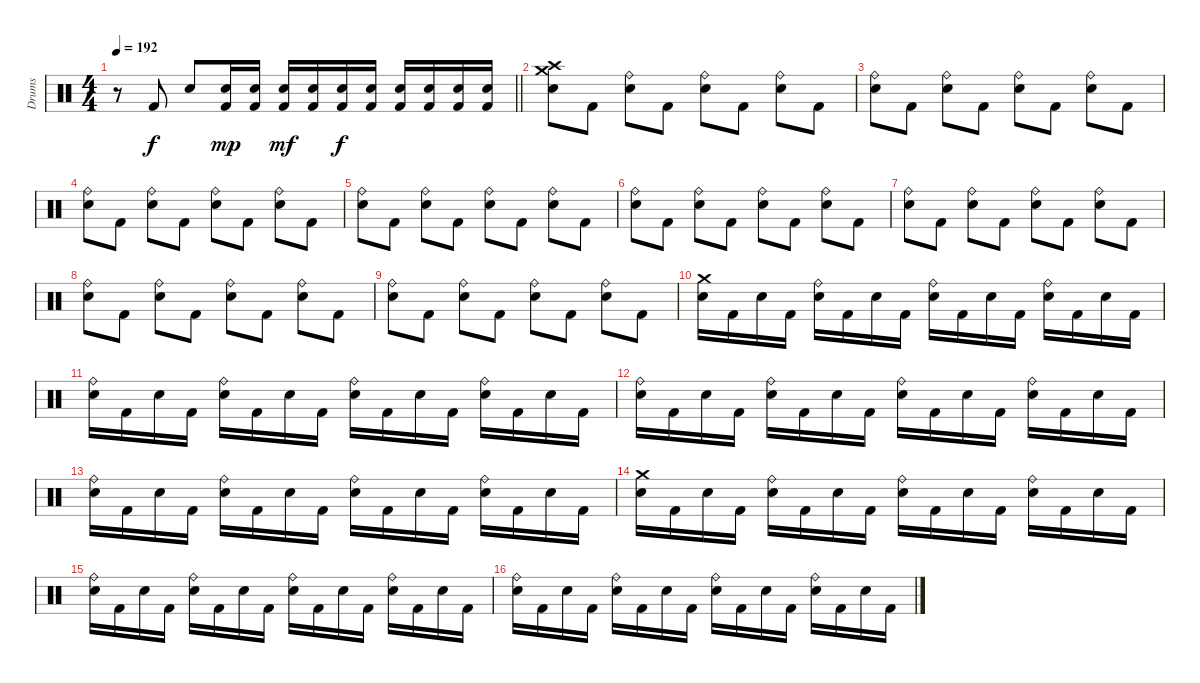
\track ("Drums" "Drums") {instrument percussion}
\staff {score}
\articulation defaults
\ts (4 4)
\tempo 192
\clef neutral
\barLineRight lightlight
\ks c
r.8{dy f} "Kick (hit) 2".8 "Snare (hit) 2".8 ("Snare (hit) 2" "Kick (hit) 2").16{dy mp} ("Snare (hit) 2" "Kick (hit) 2").16 ("Snare (hit) 2" "Kick (hit) 2").16{dy mf} ("Snare (hit) 2" "Kick (hit) 2").16 ("Snare (hit) 2" "Kick (hit) 2").16{dy f} ("Snare (hit) 2" "Kick (hit) 2").16 ("Snare (hit) 2" "Kick (hit) 2").16 ("Snare (hit) 2" "Kick (hit) 2").16 ("Snare (hit) 2" "Kick (hit) 2").16 ("Snare (hit) 2" "Kick (hit) 2").16 |
\section ("" "")
("Crash medium (hit)" "Crash high (hit)" "Snare (hit) 2").8 "Kick (hit) 2".8 ("Ride (bell)" "Snare (hit) 2").8 "Kick (hit) 2".8 ("Ride (bell)" "Snare (hit) 2").8 "Kick (hit) 2".8 ("Ride (bell)" "Snare (hit) 2").8 "Kick (hit) 2".8 |
("Ride (bell)" "Snare (hit) 2").8 "Kick (hit) 2".8 ("Ride (bell)" "Snare (hit) 2").8 "Kick (hit) 2".8 ("Ride (bell)" "Snare (hit) 2").8 "Kick (hit) 2".8 ("Ride (bell)" "Snare (hit) 2").8 "Kick (hit) 2".8 |
("Ride (bell)" "Snare (hit) 2").8 "Kick (hit) 2".8 ("Ride (bell)" "Snare (hit) 2").8 "Kick (hit) 2".8 ("Ride (bell)" "Snare (hit) 2").8 "Kick (hit) 2".8 ("Ride (bell)" "Snare (hit) 2").8 "Kick (hit) 2".8 |
("Ride (bell)" "Snare (hit) 2").8 "Kick (hit) 2".8 ("Ride (bell)" "Snare (hit) 2").8 "Kick (hit) 2".8 ("Ride (bell)" "Snare (hit) 2").8 "Kick (hit) 2".8 ("Ride (bell)" "Snare (hit) 2").8 "Kick (hit) 2".8 |
("Ride (bell)" "Snare (hit) 2").8 "Kick (hit) 2".8 ("Ride (bell)" "Snare (hit) 2").8 "Kick (hit) 2".8 ("Ride (bell)" "Snare (hit) 2").8 "Kick (hit) 2".8 ("Ride (bell)" "Snare (hit) 2").8 "Kick (hit) 2".8 |
("Ride (bell)" "Snare (hit) 2").8 "Kick (hit) 2".8 ("Ride (bell)" "Snare (hit) 2").8 "Kick (hit) 2".8 ("Ride (bell)" "Snare (hit) 2").8 "Kick (hit) 2".8 ("Ride (bell)" "Snare (hit) 2").8 "Kick (hit) 2".8 |
("Ride (bell)" "Snare (hit) 2").8 "Kick (hit) 2".8 ("Ride (bell)" "Snare (hit) 2").8 "Kick (hit) 2".8 ("Ride (bell)" "Snare (hit) 2").8 "Kick (hit) 2".8 ("Ride (bell)" "Snare (hit) 2").8 "Kick (hit) 2".8 |
("Ride (bell)" "Snare (hit) 2").8 "Kick (hit) 2".8 ("Ride (bell)" "Snare (hit) 2").8 "Kick (hit) 2".8 ("Ride (bell)" "Snare (hit) 2").8 "Kick (hit) 2".8 ("Ride (bell)" "Snare (hit) 2").8 "Kick (hit) 2".8 |
("Crash medium (hit)" "Snare (hit) 2").16 "Kick (hit) 2".16 "Snare (hit) 2".16 "Kick (hit) 2".16 ("Ride (bell)" "Snare (hit) 2").16 "Kick (hit) 2".16 "Snare (hit) 2".16 "Kick (hit) 2".16 ("Ride (bell)" "Snare (hit) 2").16 "Kick (hit) 2".16 "Snare (hit) 2".16 "Kick (hit) 2".16 ("Ride (bell)" "Snare (hit) 2").16 "Kick (hit) 2".16 "Snare (hit) 2".16 "Kick (hit) 2".16 |
("Ride (bell)" "Snare (hit) 2").16 "Kick (hit) 2".16 "Snare (hit) 2".16 "Kick (hit) 2".16 ("Ride (bell)" "Snare (hit) 2").16 "Kick (hit) 2".16 "Snare (hit) 2".16 "Kick (hit) 2".16 ("Ride (bell)" "Snare (hit) 2").16 "Kick (hit) 2".16 "Snare (hit) 2".16 "Kick (hit) 2".16 ("Ride (bell)" "Snare (hit) 2").16 "Kick (hit) 2".16 "Snare (hit) 2".16 "Kick (hit) 2".16 |
("Ride (bell)" "Snare (hit) 2").16 "Kick (hit) 2".16 "Snare (hit) 2".16 "Kick (hit) 2".16 ("Ride (bell)" "Snare (hit) 2").16 "Kick (hit) 2".16 "Snare (hit) 2".16 "Kick (hit) 2".16 ("Ride (bell)" "Snare (hit) 2").16 "Kick (hit) 2".16 "Snare (hit) 2".16 "Kick (hit) 2".16 ("Ride (bell)" "Snare (hit) 2").16 "Kick (hit) 2".16 "Snare (hit) 2".16 "Kick (hit) 2".16 |
("Ride (bell)" "Snare (hit) 2").16 "Kick (hit) 2".16 "Snare (hit) 2".16 "Kick (hit) 2".16 ("Ride (bell)" "Snare (hit) 2").16 "Kick (hit) 2".16 "Snare (hit) 2".16 "Kick (hit) 2".16 ("Ride (bell)" "Snare (hit) 2").16 "Kick (hit) 2".16 "Snare (hit) 2".16 "Kick (hit) 2".16 ("Ride (bell)" "Snare (hit) 2").16 "Kick (hit) 2".16 "Snare (hit) 2".16 "Kick (hit) 2".16 |
("Crash medium (hit)" "Snare (hit) 2").16 "Kick (hit) 2".16 "Snare (hit) 2".16 "Kick (hit) 2".16 ("Ride (bell)" "Snare (hit) 2").16 "Kick (hit) 2".16 "Snare (hit) 2".16 "Kick (hit) 2".16 ("Ride (bell)" "Snare (hit) 2").16 "Kick (hit) 2".16 "Snare (hit) 2".16 "Kick (hit) 2".16 ("Ride (bell)" "Snare (hit) 2").16 "Kick (hit) 2".16 "Snare (hit) 2".16 "Kick (hit) 2".16 |
("Ride (bell)" "Snare (hit) 2").16 "Kick (hit) 2".16 "Snare (hit) 2".16 "Kick (hit) 2".16 ("Ride (bell)" "Snare (hit) 2").16 "Kick (hit) 2".16 "Snare (hit) 2".16 "Kick (hit) 2".16 ("Ride (bell)" "Snare (hit) 2").16 "Kick (hit) 2".16 "Snare (hit) 2".16 "Kick (hit) 2".16 ("Ride (bell)" "Snare (hit) 2").16 "Kick (hit) 2".16 "Snare (hit) 2".16 "Kick (hit) 2".16 |
("Ride (bell)" "Snare (hit) 2").16 "Kick (hit) 2".16 "Snare (hit) 2".16 "Kick (hit) 2".16 ("Ride (bell)" "Snare (hit) 2").16 "Kick (hit) 2".16 "Snare (hit) 2".16 "Kick (hit) 2".16 ("Ride (bell)" "Snare (hit) 2").16 "Kick (hit) 2".16 "Snare (hit) 2".16 "Kick (hit) 2".16 ("Ride (bell)" "Snare (hit) 2").16 "Kick (hit) 2".16 "Snare (hit) 2".16 "Kick (hit) 2".16
